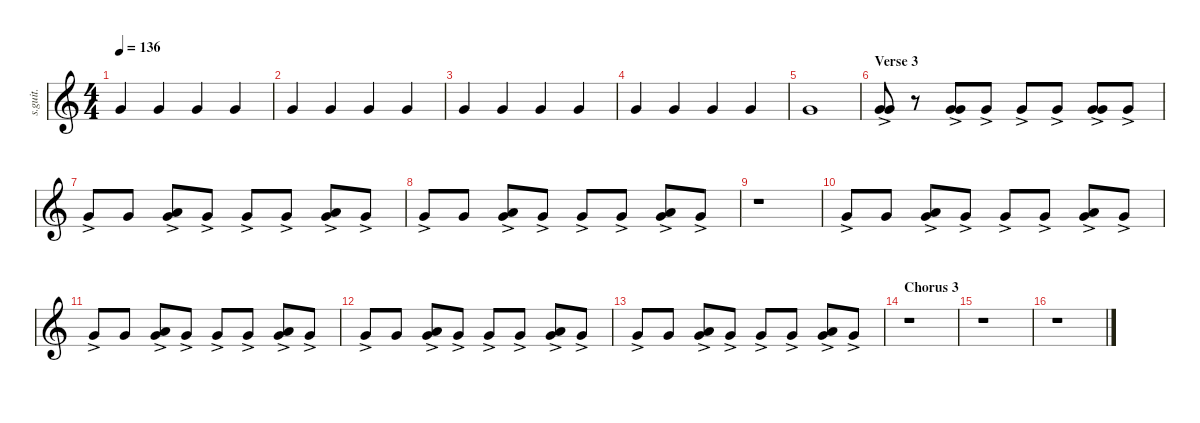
\defaultSystemsLayout 4
\hideDynamics
\bracketExtendMode nobrackets
\track ("Shawn Crahan " "s.guit.") {instrument percussion}
\staff {score}
\articulation defaults
\ts (4 4)
\tempo 136
\clef g2
\ks c "Very Low Tom (hit)".4{lyrics (0 "") lyrics (1 "") lyrics (2 "") lyrics (3 "") lyrics (4 "") dy fff} "Very Low Tom (hit)".4{lyrics (0 "") lyrics (1 "") lyrics (2 "") lyrics (3 "") lyrics (4 "")} "Very Low Tom (hit)".4{lyrics (0 "") lyrics (1 "") lyrics (2 "") lyrics (3 "") lyrics (4 "")} "Very Low Tom (hit)".4{lyrics (0 "") lyrics (1 "") lyrics (2 "") lyrics (3 "") lyrics (4 "")}
|
"Very Low Tom (hit)".4{lyrics (0 "") lyrics (1 "") lyrics (2 "") lyrics (3 "") lyrics (4 "")} "Very Low Tom (hit)".4{lyrics (0 "") lyrics (1 "") lyrics (2 "") lyrics (3 "") lyrics (4 "")} "Very Low Tom (hit)".4{lyrics (0 "") lyrics (1 "") lyrics (2 "") lyrics (3 "") lyrics (4 "")} "Very Low Tom (hit)".4{lyrics (0 "") lyrics (1 "") lyrics (2 "") lyrics (3 "") lyrics (4 "")} |
"Very Low Tom (hit)".4{lyrics (0 "") lyrics (1 "") lyrics (2 "") lyrics (3 "") lyrics (4 "")} "Very Low Tom (hit)".4{lyrics (0 "") lyrics (1 "") lyrics (2 "") lyrics (3 "") lyrics (4 "")} "Very Low Tom (hit)".4{lyrics (0 "") lyrics (1 "") lyrics (2 "") lyrics (3 "") lyrics (4 "")} "Very Low Tom (hit)".4{lyrics (0 "") lyrics (1 "") lyrics (2 "") lyrics (3 "") lyrics (4 "")} |
"Very Low Tom (hit)".4{lyrics (0 "") lyrics (1 "") lyrics (2 "") lyrics (3 "") lyrics (4 "")} "Very Low Tom (hit)".4{lyrics (0 "") lyrics (1 "") lyrics (2 "") lyrics (3 "") lyrics (4 "")} "Very Low Tom (hit)".4{lyrics (0 "") lyrics (1 "") lyrics (2 "") lyrics (3 "") lyrics (4 "")} "Very Low Tom (hit)".4{lyrics (0 "") lyrics (1 "") lyrics (2 "") lyrics (3 "") lyrics (4 "")} |
"Very Low Tom (hit)".1{lyrics (0 "") lyrics (1 "") lyrics (2 "") lyrics (3 "") lyrics (4 "")} |
\section ("" "Verse 3")
("Very Low Tom (hit)"{ac} "Very Low Tom (hit)"{ac}).8{lyrics (0 "") lyrics (1 "") lyrics (2 "") lyrics (3 "") lyrics (4 "")} r.8 ("Very Low Tom (hit)"{ac} "Very Low Tom (hit)"{ac}).8{lyrics (0 "") lyrics (1 "") lyrics (2 "") lyrics (3 "") lyrics (4 "")} "Very Low Tom (hit)"{ac}.8{lyrics (0 "") lyrics (1 "") lyrics (2 "") lyrics (3 "") lyrics (4 "")} "Very Low Tom (hit)"{ac}.8{lyrics (0 "") lyrics (1 "") lyrics (2 "") lyrics (3 "") lyrics (4 "")} "Very Low Tom (hit)"{ac}.8{lyrics (0 "") lyrics (1 "") lyrics (2 "") lyrics (3 "") lyrics (4 "")} ("Very Low Tom (hit)"{ac} "Very Low Tom (hit)"{ac}).8{lyrics (0 "") lyrics (1 "") lyrics (2 "") lyrics (3 "") lyrics (4 "")} "Very Low Tom (hit)"{ac}.8{lyrics (0 "") lyrics (1 "") lyrics (2 "") lyrics (3 "") lyrics (4 "")} |
"Very Low Tom (hit)"{ac}.8{lyrics (0 "") lyrics (1 "") lyrics (2 "") lyrics (3 "") lyrics (4 "")} "Very Low Tom (hit)".8{lyrics (0 "") lyrics (1 "") lyrics (2 "") lyrics (3 "") lyrics (4 "")} ("Very Low Tom (hit)"{ac} "Low Floor Tom (hit)").8{lyrics (0 "") lyrics (1 "") lyrics (2 "") lyrics (3 "") lyrics (4 "")} "Very Low Tom (hit)"{ac}.8{lyrics (0 "") lyrics (1 "") lyrics (2 "") lyrics (3 "") lyrics (4 "")} "Very Low Tom (hit)"{ac}.8{lyrics (0 "") lyrics (1 "") lyrics (2 "") lyrics (3 "") lyrics (4 "")} "Very Low Tom (hit)"{ac}.8{lyrics (0 "") lyrics (1 "") lyrics (2 "") lyrics (3 "") lyrics (4 "")} ("Very Low Tom (hit)"{ac} "Low Floor Tom (hit)").8{lyrics (0 "") lyrics (1 "") lyrics (2 "") lyrics (3 "") lyrics (4 "")} "Very Low Tom (hit)"{ac}.8{lyrics (0 "") lyrics (1 "") lyrics (2 "") lyrics (3 "") lyrics (4 "")} |
"Very Low Tom (hit)"{ac}.8{lyrics (0 "") lyrics (1 "") lyrics (2 "") lyrics (3 "") lyrics (4 "")} "Very Low Tom (hit)".8{lyrics (0 "") lyrics (1 "") lyrics (2 "") lyrics (3 "") lyrics (4 "")} ("Very Low Tom (hit)"{ac} "Low Floor Tom (hit)").8{lyrics (0 "") lyrics (1 "") lyrics (2 "") lyrics (3 "") lyrics (4 "")} "Very Low Tom (hit)"{ac}.8{lyrics (0 "") lyrics (1 "") lyrics (2 "") lyrics (3 "") lyrics (4 "")} "Very Low Tom (hit)"{ac}.8{lyrics (0 "") lyrics (1 "") lyrics (2 "") lyrics (3 "") lyrics (4 "")} "Very Low Tom (hit)"{ac}.8{lyrics (0 "") lyrics (1 "") lyrics (2 "") lyrics (3 "") lyrics (4 "")} ("Very Low Tom (hit)"{ac} "Low Floor Tom (hit)").8{lyrics (0 "") lyrics (1 "") lyrics (2 "") lyrics (3 "") lyrics (4 "")} "Very Low Tom (hit)"{ac}.8{lyrics (0 "") lyrics (1 "") lyrics (2 "") lyrics (3 "") lyrics (4 "")} |
r.1 |
"Very Low Tom (hit)"{ac}.8{lyrics (0 "") lyrics (1 "") lyrics (2 "") lyrics (3 "") lyrics (4 "")} "Very Low Tom (hit)".8{lyrics (0 "") lyrics (1 "") lyrics (2 "") lyrics (3 "") lyrics (4 "")} ("Very Low Tom (hit)"{ac} "Low Floor Tom (hit)").8{lyrics (0 "") lyrics (1 "") lyrics (2 "") lyrics (3 "") lyrics (4 "")} "Very Low Tom (hit)"{ac}.8{lyrics (0 "") lyrics (1 "") lyrics (2 "") lyrics (3 "") lyrics (4 "")} "Very Low Tom (hit)"{ac}.8{lyrics (0 "") lyrics (1 "") lyrics (2 "") lyrics (3 "") lyrics (4 "")} "Very Low Tom (hit)"{ac}.8{lyrics (0 "") lyrics (1 "") lyrics (2 "") lyrics (3 "") lyrics (4 "")} ("Very Low Tom (hit)"{ac} "Low Floor Tom (hit)").8{lyrics (0 "") lyrics (1 "") lyrics (2 "") lyrics (3 "") lyrics (4 "")} "Very Low Tom (hit)"{ac}.8{lyrics (0 "") lyrics (1 "") lyrics (2 "") lyrics (3 "") lyrics (4 "")} |
"Very Low Tom (hit)"{ac}.8{lyrics (0 "") lyrics (1 "") lyrics (2 "") lyrics (3 "") lyrics (4 "")} "Very Low Tom (hit)".8{lyrics (0 "") lyrics (1 "") lyrics (2 "") lyrics (3 "") lyrics (4 "")} ("Very Low Tom (hit)"{ac} "Low Floor Tom (hit)").8{lyrics (0 "") lyrics (1 "") lyrics (2 "") lyrics (3 "") lyrics (4 "")} "Very Low Tom (hit)"{ac}.8{lyrics (0 "") lyrics (1 "") lyrics (2 "") lyrics (3 "") lyrics (4 "")} "Very Low Tom (hit)"{ac}.8{lyrics (0 "") lyrics (1 "") lyrics (2 "") lyrics (3 "") lyrics (4 "")} "Very Low Tom (hit)"{ac}.8{lyrics (0 "") lyrics (1 "") lyrics (2 "") lyrics (3 "") lyrics (4 "")} ("Very Low Tom (hit)"{ac} "Low Floor Tom (hit)").8{lyrics (0 "") lyrics (1 "") lyrics (2 "") lyrics (3 "") lyrics (4 "")} "Very Low Tom (hit)"{ac}.8{lyrics (0 "") lyrics (1 "") lyrics (2 "") lyrics (3 "") lyrics (4 "")} |
"Very Low Tom (hit)"{ac}.8{lyrics (0 "") lyrics (1 "") lyrics (2 "") lyrics (3 "") lyrics (4 "")} "Very Low Tom (hit)".8{lyrics (0 "") lyrics (1 "") lyrics (2 "") lyrics (3 "") lyrics (4 "")} ("Very Low Tom (hit)"{ac} "Low Floor Tom (hit)").8{lyrics (0 "") lyrics (1 "") lyrics (2 "") lyrics (3 "") lyrics (4 "")} "Very Low Tom (hit)"{ac}.8{lyrics (0 "") lyrics (1 "") lyrics (2 "") lyrics (3 "") lyrics (4 "")} "Very Low Tom (hit)"{ac}.8{lyrics (0 "") lyrics (1 "") lyrics (2 "") lyrics (3 "") lyrics (4 "")} "Very Low Tom (hit)"{ac}.8{lyrics (0 "") lyrics (1 "") lyrics (2 "") lyrics (3 "") lyrics (4 "")} ("Very Low Tom (hit)"{ac} "Low Floor Tom (hit)").8{lyrics (0 "") lyrics (1 "") lyrics (2 "") lyrics (3 "") lyrics (4 "")} "Very Low Tom (hit)"{ac}.8{lyrics (0 "") lyrics (1 "") lyrics (2 "") lyrics (3 "") lyrics (4 "")} |
"Very Low Tom (hit)"{ac}.8{lyrics (0 "") lyrics (1 "") lyrics (2 "") lyrics (3 "") lyrics (4 "")} "Very Low Tom (hit)".8{lyrics (0 "") lyrics (1 "") lyrics (2 "") lyrics (3 "") lyrics (4 "")} ("Very Low Tom (hit)"{ac} "Low Floor Tom (hit)").8{lyrics (0 "") lyrics (1 "") lyrics (2 "") lyrics (3 "") lyrics (4 "")} "Very Low Tom (hit)"{ac}.8{lyrics (0 "") lyrics (1 "") lyrics (2 "") lyrics (3 "") lyrics (4 "")} "Very Low Tom (hit)"{ac}.8{lyrics (0 "") lyrics (1 "") lyrics (2 "") lyrics (3 "") lyrics (4 "")} "Very Low Tom (hit)"{ac}.8{lyrics (0 "") lyrics (1 "") lyrics (2 "") lyrics (3 "") lyrics (4 "")} ("Very Low Tom (hit)"{ac} "Low Floor Tom (hit)").8{lyrics (0 "") lyrics (1 "") lyrics (2 "") lyrics (3 "") lyrics (4 "")} "Very Low Tom (hit)"{ac}.8{lyrics (0 "") lyrics (1 "") lyrics (2 "") lyrics (3 "") lyrics (4 "")} |
\section ("" "Chorus 3")
r.1 |
r.1 |
r.1
